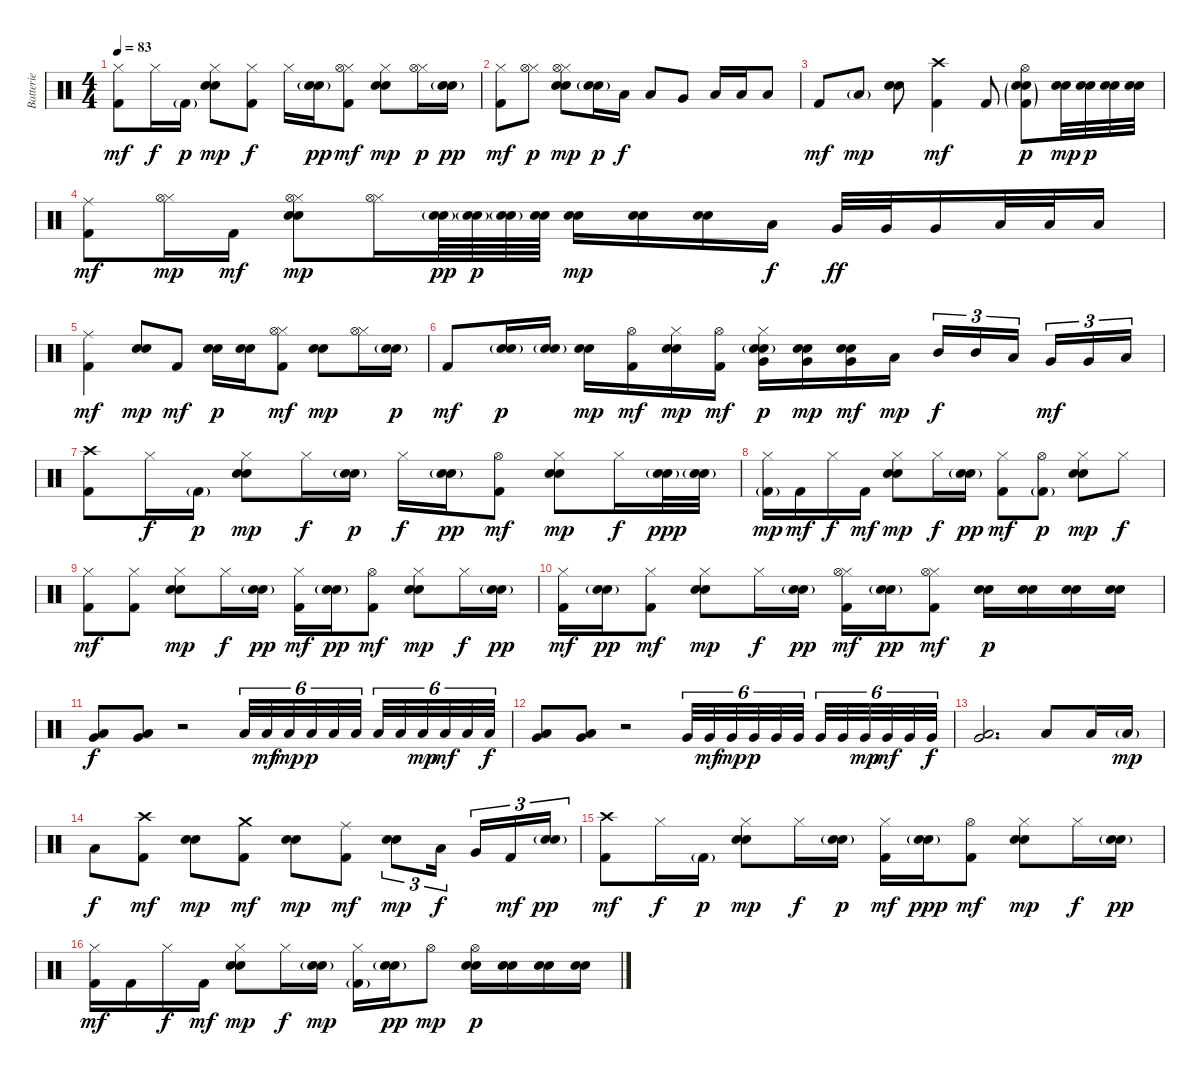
\track ("Batterie" "Batterie") {instrument percussion}
\staff {score}
\articulation defaults
\ts (4 4)
\tempo 83
\clef neutral
\ks c
("Hi-Hat (closed)" "Kick (hit) 2").8{dy mf} "Hi-Hat (closed)".16{dy f} "Kick (hit) 2"{g}.16{dy p} ("Hi-Hat (closed)" "Electric Snare (hit)" "Snare (hit) 2").8{dy mp} ("Hi-Hat (closed)" "Kick (hit) 2").8{dy f} "Hi-Hat (closed)".16 ("Electric Snare (hit)"{g} "Snare (hit) 2"{g}).16{dy pp} ("Hi-Hat (closed)" "Hi-Hat (open)" "Kick (hit) 2").8{dy mf} ("Hi-Hat (closed)" "Electric Snare (hit)" "Snare (hit) 2").8{dy mp} ("Hi-Hat (closed)" "Hi-Hat (open)").16{dy p} ("Electric Snare (hit)"{g} "Snare (hit) 2"{g}).16{dy pp} |
("Hi-Hat (closed)" "Kick (hit) 2").8{dy mf} ("Hi-Hat (closed)" "Hi-Hat (open)").8{dy p} ("Hi-Hat (closed)" "Hi-Hat (open)" "Electric Snare (hit)" "Snare (hit) 2").8{dy mp} ("Electric Snare (hit)"{g} "Snare (hit) 2"{g}).16{dy p} "Low Tom (hit)".16{dy f} "Low Tom (hit)".8 "Very Low Tom (hit)".8 "Low Floor Tom (hit)".16 "Low Floor Tom (hit)".16 "Low Floor Tom (hit)".8 |
"Kick (hit) 2".8{dy mf} "Low Tom (hit)"{g}.8{dy mp} ("Electric Snare (hit)" "Snare (hit) 2").8 ("Crash high (hit)" "Kick (hit) 2").4{dy mf} "Kick (hit) 2".8 ("Hi-Hat (open)" "Electric Snare (hit)"{g} "Snare (hit) 2"{g} "Kick (hit) 2"{g}).8{dy p} ("Snare (hit) 2" "Electric Snare (hit)").32{dy mp} ("Snare (hit) 2" "Electric Snare (hit)").32{dy p} ("Snare (hit) 2" "Electric Snare (hit)").32 ("Snare (hit) 2" "Electric Snare (hit)").32 |
("Ride (middle)" "Kick (hit) 2").8{dy mf} ("Hi-Hat (closed)" "Hi-Hat (open)").16{dy mp} "Kick (hit) 2".16{dy mf} ("Hi-Hat (closed)" "Hi-Hat (open)" "Electric Snare (hit)" "Snare (hit) 2").8{dy mp} ("Hi-Hat (closed)" "Hi-Hat (open)").16 ("Electric Snare (hit)"{g} "Snare (hit) 2"{g}).64{dy pp} ("Electric Snare (hit)"{g} "Snare (hit) 2"{g}).64{dy p} ("Electric Snare (hit)"{g} "Snare (hit) 2"{g}).64 ("Electric Snare (hit)" "Snare (hit) 2").64 ("Electric Snare (hit)" "Snare (hit) 2").16{dy mp} ("Electric Snare (hit)" "Snare (hit) 2").16 ("Electric Snare (hit)" "Snare (hit) 2").16 "Low Tom (hit)".16{dy f} "Very Low Tom (hit)".32{dy ff} "Very Low Tom (hit)".32 "Very Low Tom (hit)".16 "Low Floor Tom (hit)".32 "Low Floor Tom (hit)".32 "Low Floor Tom (hit)".16 |
("Ride (middle)" "Kick (hit) 2").4{dy mf} ("Electric Snare (hit)" "Snare (hit) 2").8{dy mp} "Kick (hit) 2".8{dy mf} ("Electric Snare (hit)" "Snare (hit) 2").16{dy p} ("Electric Snare (hit)" "Snare (hit) 2").16 ("Hi-Hat (closed)" "Hi-Hat (open)" "Kick (hit) 2").8{dy mf} ("Electric Snare (hit)" "Snare (hit) 2").8{dy mp} ("Hi-Hat (closed)" "Hi-Hat (open)").16 ("Electric Snare (hit)"{g} "Snare (hit) 2"{g}).16{dy p} |
"Kick (hit) 2".8{dy mf} ("Electric Snare (hit)"{g} "Snare (hit) 2"{g}).16{dy p} ("Electric Snare (hit)"{g} "Snare (hit) 2"{g}).16 ("Electric Snare (hit)" "Snare (hit) 2").16{dy mp} ("Hi-Hat (open)" "Kick (hit) 2").16{dy mf} ("Hi-Hat (closed)" "Electric Snare (hit)" "Snare (hit) 2").16{dy mp} ("Hi-Hat (open)" "Kick (hit) 2").16{dy mf} ("Hi-Hat (closed)" "Electric Snare (hit)"{g} "Snare (hit) 2"{g} "Very Low Tom (hit)").16{dy p} ("Electric Snare (hit)" "Snare (hit) 2" "Very Low Tom (hit)").16{dy mp} ("Electric Snare (hit)" "Snare (hit) 2" "Very Low Tom (hit)").16{dy mf} "Low Tom (hit)".16{dy mp} "Mid Tom (hit)".16{tu (3 2) dy f} "Mid Tom (hit)".16{tu (3 2)} "Low Tom (hit)".16{tu (3 2)} "Very Low Tom (hit)".16{tu (3 2) dy mf} "Very Low Tom (hit)".16{tu (3 2)} "Low Floor Tom (hit)".16{tu (3 2)} |
("Crash high (hit)" "Kick (hit) 2").8 "Hi-Hat (closed)".16{dy f} "Kick (hit) 2"{g}.16{dy p} ("Hi-Hat (closed)" "Electric Snare (hit)" "Snare (hit) 2").8{dy mp} "Hi-Hat (closed)".16{dy f} ("Electric Snare (hit)"{g} "Snare (hit) 2"{g}).16{dy p} "Hi-Hat (closed)".16{dy f} ("Electric Snare (hit)"{g} "Snare (hit) 2"{g}).16{dy pp} ("Hi-Hat (open)" "Kick (hit) 2").8{dy mf} ("Hi-Hat (closed)" "Electric Snare (hit)" "Snare (hit) 2").8{dy mp} "Hi-Hat (closed)".16{dy f} ("Electric Snare (hit)"{g} "Snare (hit) 2"{g}).32{dy ppp} ("Electric Snare (hit)"{g} "Snare (hit) 2"{g}).32 |
("Hi-Hat (closed)" "Kick (hit) 2"{g}).16{dy mp} "Kick (hit) 2".16{dy mf} "Hi-Hat (closed)".16{dy f} "Kick (hit) 2".16{dy mf} ("Hi-Hat (closed)" "Electric Snare (hit)" "Snare (hit) 2").8{dy mp} "Hi-Hat (closed)".16{dy f} ("Electric Snare (hit)"{g} "Snare (hit) 2"{g}).16{dy pp} ("Hi-Hat (closed)" "Kick (hit) 2").8{dy mf} ("Hi-Hat (open)" "Kick (hit) 2"{g}).8{dy p} ("Hi-Hat (closed)" "Electric Snare (hit)" "Snare (hit) 2").8{dy mp} "Hi-Hat (closed)".8{dy f} |
("Hi-Hat (closed)" "Kick (hit) 2").8{dy mf} ("Hi-Hat (closed)" "Kick (hit) 2").8 ("Hi-Hat (closed)" "Electric Snare (hit)" "Snare (hit) 2").8{dy mp} "Hi-Hat (closed)".16{dy f} ("Electric Snare (hit)"{g} "Snare (hit) 2"{g}).16{dy pp} ("Hi-Hat (closed)" "Kick (hit) 2").16{dy mf} ("Electric Snare (hit)"{g} "Snare (hit) 2"{g}).16{dy pp} ("Hi-Hat (open)" "Kick (hit) 2").8{dy mf} ("Hi-Hat (closed)" "Electric Snare (hit)" "Snare (hit) 2").8{dy mp} "Hi-Hat (closed)".16{dy f} ("Electric Snare (hit)"{g} "Snare (hit) 2"{g}).16{dy pp} |
("Hi-Hat (closed)" "Kick (hit) 2").16{dy mf} ("Electric Snare (hit)"{g} "Snare (hit) 2"{g}).16{dy pp} ("Hi-Hat (closed)" "Kick (hit) 2").8{dy mf} ("Hi-Hat (closed)" "Electric Snare (hit)" "Snare (hit) 2").8{dy mp} "Hi-Hat (closed)".16{dy f} ("Electric Snare (hit)"{g} "Snare (hit) 2"{g}).16{dy pp} ("Hi-Hat (closed)" "Hi-Hat (open)" "Kick (hit) 2").16{dy mf} ("Electric Snare (hit)"{g} "Snare (hit) 2"{g}).16{dy pp} ("Hi-Hat (closed)" "Hi-Hat (open)" "Kick (hit) 2").8{dy mf} ("Electric Snare (hit)" "Snare (hit) 2").16{dy p} ("Electric Snare (hit)" "Snare (hit) 2").16 ("Electric Snare (hit)" "Snare (hit) 2").16 ("Electric Snare (hit)" "Snare (hit) 2").16 |
("Very Low Tom (hit)" "Low Floor Tom (hit)").8{dy f} ("Very Low Tom (hit)" "Low Floor Tom (hit)").8 r.2 "Low Floor Tom (hit)".32{tu (6 4)} "Low Floor Tom (hit)".32{tu (6 4) dy mf} "Low Floor Tom (hit)".32{tu (6 4) dy mp} "Low Floor Tom (hit)".32{tu (6 4) dy p} "Low Floor Tom (hit)".32{tu (6 4)} "Low Floor Tom (hit)".32{tu (6 4)} "Low Floor Tom (hit)".32{tu (6 4)} "Low Floor Tom (hit)".32{tu (6 4)} "Low Floor Tom (hit)".32{tu (6 4) dy mp} "Low Floor Tom (hit)".32{tu (6 4) dy mf} "Low Floor Tom (hit)".32{tu (6 4)} "Low Floor Tom (hit)".32{tu (6 4) dy f} |
("Very Low Tom (hit)" "Low Floor Tom (hit)").8 ("Very Low Tom (hit)" "Low Floor Tom (hit)").8 r.2 "Very Low Tom (hit)".32{tu (6 4)} "Very Low Tom (hit)".32{tu (6 4) dy mf} "Very Low Tom (hit)".32{tu (6 4) dy mp} "Very Low Tom (hit)".32{tu (6 4) dy p} "Very Low Tom (hit)".32{tu (6 4)} "Very Low Tom (hit)".32{tu (6 4)} "Very Low Tom (hit)".32{tu (6 4)} "Very Low Tom (hit)".32{tu (6 4)} "Very Low Tom (hit)".32{tu (6 4) dy mp} "Very Low Tom (hit)".32{tu (6 4) dy mf} "Very Low Tom (hit)".32{tu (6 4)} "Very Low Tom (hit)".32{tu (6 4) dy f} |
("Very Low Tom (hit)" "Low Floor Tom (hit)").2{d} "Low Floor Tom (hit)".8 "Low Floor Tom (hit)".16 "Low Floor Tom (hit)"{g}.16{dy mp} |
"Low Floor Tom (hit)".8{dy f} ("Crash high (hit)" "Kick (hit) 2").8{dy mf} ("Electric Snare (hit)" "Snare (hit) 2").8{dy mp} ("Crash medium (hit)" "Kick (hit) 2").8{dy mf} ("Electric Snare (hit)" "Snare (hit) 2").8{dy mp} ("Ride (middle)" "Kick (hit) 2").8{dy mf} ("Electric Snare (hit)" "Snare (hit) 2").8{tu (3 2) dy mp} "Low Tom (hit)".16{tu (3 2) dy f} "Very Low Tom (hit)".16{tu (3 2)} "Kick (hit) 2".16{tu (3 2) dy mf} ("Electric Snare (hit)"{g} "Snare (hit) 2"{g}).16{tu (3 2) dy pp} |
("Crash high (hit)" "Kick (hit) 2").8{dy mf} "Hi-Hat (closed)".16{dy f} "Kick (hit) 2"{g}.16{dy p} ("Hi-Hat (closed)" "Electric Snare (hit)" "Snare (hit) 2").8{dy mp} "Hi-Hat (closed)".16{dy f} ("Electric Snare (hit)"{g} "Snare (hit) 2"{g}).16{dy p} ("Hi-Hat (closed)" "Kick (hit) 2").16{dy mf} ("Electric Snare (hit)"{g} "Snare (hit) 2"{g}).16{dy ppp} ("Hi-Hat (open)" "Kick (hit) 2").8{dy mf} ("Hi-Hat (closed)" "Electric Snare (hit)" "Snare (hit) 2").8{dy mp} "Hi-Hat (closed)".16{dy f} ("Electric Snare (hit)"{g} "Snare (hit) 2"{g}).16{dy pp} |
("Hi-Hat (closed)" "Kick (hit) 2").16{dy mf} "Kick (hit) 2".16 "Hi-Hat (closed)".16{dy f} "Kick (hit) 2".16{dy mf} ("Hi-Hat (closed)" "Electric Snare (hit)" "Snare (hit) 2").8{dy mp} "Hi-Hat (closed)".16{dy f} ("Electric Snare (hit)"{g} "Snare (hit) 2"{g}).16{dy mp} ("Hi-Hat (closed)" "Kick (hit) 2"{g}).16 ("Electric Snare (hit)"{g} "Snare (hit) 2"{g}).16{dy pp} "Hi-Hat (open)".8{dy mp} ("Hi-Hat (open)" "Electric Snare (hit)" "Snare (hit) 2").16{dy p} ("Electric Snare (hit)" "Snare (hit) 2").16 ("Electric Snare (hit)" "Snare (hit) 2").16 ("Electric Snare (hit)" "Snare (hit) 2").16
